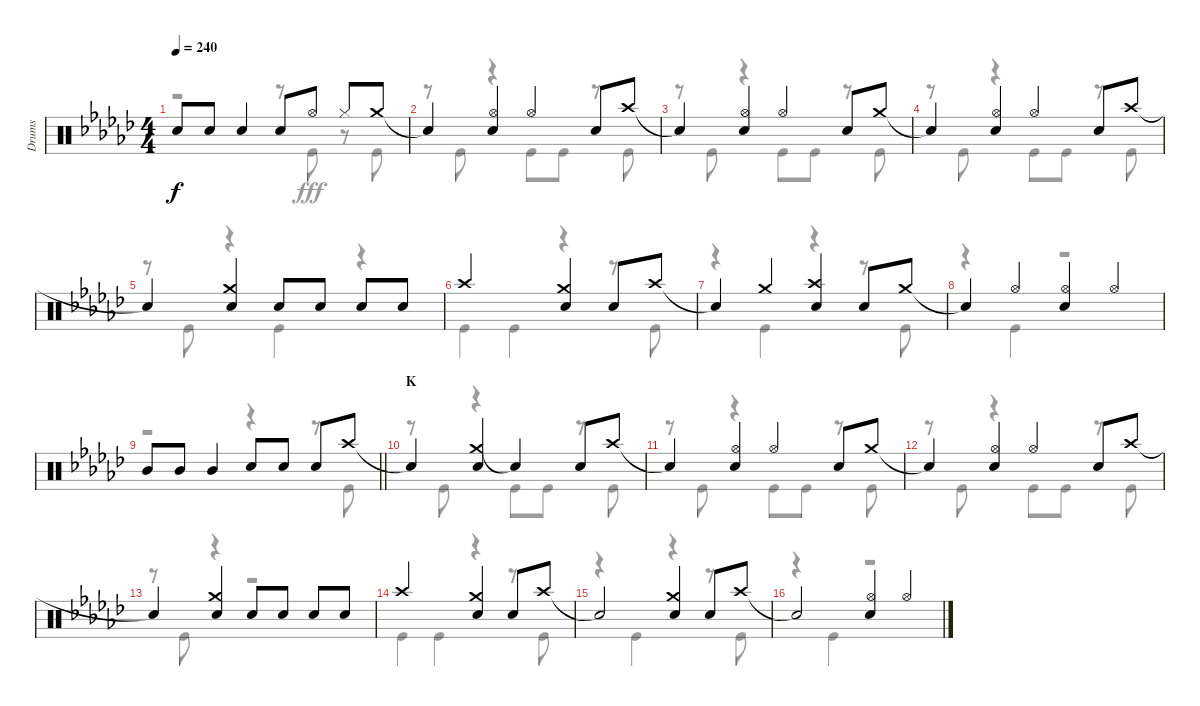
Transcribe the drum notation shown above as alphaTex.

\track ("Drums" "Drums") {instrument percussion}
\staff {score}
\articulation defaults
\voice
\ts (4 4)
\tempo 240
\clef neutral
\ks gb "Snare (hit) 2".8{dy f} "Snare (hit) 2".8 "Snare (hit) 2".4 "Snare (hit) 2".8 "Hi-Hat (open)".8 "Hi-Hat (closed)".8 "Crash medium (hit)".8
|
"Snare (hit)"{t}.4 ("Hi-Hat (open)" "Snare (hit) 2").4 "Hi-Hat (open)".4 "Snare (hit) 2".8 "Crash high (hit)".8 |
"Snare (hit)"{t}.4 ("Hi-Hat (open)" "Snare (hit) 2").4 "Hi-Hat (open)".4 "Snare (hit) 2".8 "Crash medium (hit)".8 |
"Snare (hit)"{t}.4 ("Hi-Hat (open)" "Snare (hit) 2").4 "Hi-Hat (open)".4 "Snare (hit) 2".8 "Crash high (hit)".8 |
"Snare (hit)"{t}.4 ("Crash medium (hit)" "Snare (hit) 2").4 "Snare (hit) 2".8 "Snare (hit) 2".8 "Snare (hit) 2".8 "Snare (hit) 2".8 |
"Crash high (hit)".2 ("Crash medium (hit)" "Snare (hit) 2").4 "Snare (hit) 2".8 "Crash high (hit)".8 |
"Snare (hit)"{t}.4 "Crash medium (hit)".4 ("Crash high (hit)" "Snare (hit) 2").4 "Snare (hit) 2".8 "Crash medium (hit)".8 |
"Snare (hit)"{t}.4 "Hi-Hat (open)".4 ("Hi-Hat (open)" "Snare (hit) 2").4 "Hi-Hat (open)".4 |
\barLineRight lightlight "Mid Tom (hit)".8 "Mid Tom (hit)".8 "Mid Tom (hit)".4 "Snare (hit) 2".8 "Snare (hit) 2".8 "Snare (hit) 2".8 "Crash high (hit)".8
|
\section ("" "K")
"Snare (hit)"{t}.4 ("Crash medium (hit)" "Snare (hit) 2").4 "Snare (hit)"{t}.4 "Snare (hit) 2".8 "Crash high (hit)".8 |
"Snare (hit)"{t}.4 ("Hi-Hat (open)" "Snare (hit) 2").4 "Hi-Hat (open)".4 "Snare (hit) 2".8 "Crash medium (hit)".8 |
"Snare (hit)"{t}.4 ("Hi-Hat (open)" "Snare (hit) 2").4 "Hi-Hat (open)".4 "Snare (hit) 2".8 "Crash high (hit)".8 |
"Snare (hit)"{t}.4 ("Crash medium (hit)" "Snare (hit) 2").4 "Snare (hit) 2".8 "Snare (hit) 2".8 "Snare (hit) 2".8 "Snare (hit) 2".8 |
"Crash high (hit)".2 ("Crash medium (hit)" "Snare (hit) 2").4 "Snare (hit) 2".8 "Crash high (hit)".8 |
"Snare (hit)"{t}.2 ("Crash medium (hit)" "Snare (hit) 2").4 "Snare (hit) 2".8 "Crash high (hit)".8 |
"Snare (hit)"{t}.2 ("Hi-Hat (open)" "Snare (hit) 2").4 "Hi-Hat (open)".4
\voice
\clef neutral
\ottava regular
\simile none
\ks gb
r.2{dy fff} r.8 "Kick (hit)".8 r.8 "Kick (hit)".8 |
r.8 "Kick (hit)".8 r.4 "Kick (hit)".8 "Kick (hit)".8 r.8 "Kick (hit)".8 |
r.8 "Kick (hit)".8 r.4 "Kick (hit)".8 "Kick (hit)".8 r.8 "Kick (hit)".8 |
r.8 "Kick (hit)".8 r.4 "Kick (hit)".8 "Kick (hit)".8 r.8 "Kick (hit)".8 |
r.8 "Kick (hit)".8 r.4 "Kick (hit)".4 r.4 |
"Kick (hit)".4 "Kick (hit)".4 r.4 r.8 "Kick (hit)".8 |
r.4 "Kick (hit)".4 r.4 r.8 "Kick (hit)".8 |
r.4 "Kick (hit)".4 r.2 |
\barLineRight lightlight
r.2 r.4 r.8 "Kick (hit)".8 |
r.8 "Kick (hit)".8 r.4 "Kick (hit)".8 "Kick (hit)".8 r.8 "Kick (hit)".8 |
r.8 "Kick (hit)".8 r.4 "Kick (hit)".8 "Kick (hit)".8 r.8 "Kick (hit)".8 |
r.8 "Kick (hit)".8 r.4 "Kick (hit)".8 "Kick (hit)".8 r.8 "Kick (hit)".8 |
r.8 "Kick (hit)".8 r.4 r.2 |
"Kick (hit)".4 "Kick (hit)".4 r.4 r.8 "Kick (hit)".8 |
r.4 "Kick (hit)".4 r.4 r.8 "Kick (hit)".8 |
r.4 "Kick (hit)".4 r.2
